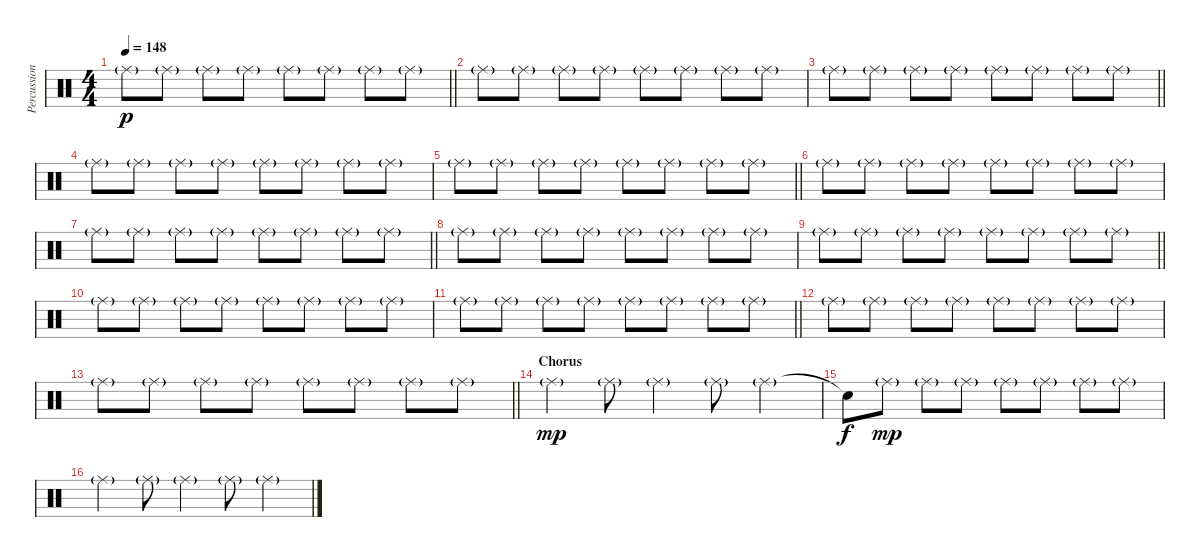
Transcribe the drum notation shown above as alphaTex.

\track ("Percussions" "Percussion") {instrument percussion}
\staff {score}
\articulation defaults
\ts (4 4)
\tempo 148
\clef neutral
\barLineRight lightlight
\ks c "Ride (middle)"{g}.8{dy p} "Ride (middle)"{g}.8 "Ride (middle)"{g}.8 "Ride (middle)"{g}.8 "Ride (middle)"{g}.8 "Ride (middle)"{g}.8 "Ride (middle)"{g}.8 "Ride (middle)"{g}.8
|
"Ride (middle)"{g}.8 "Ride (middle)"{g}.8 "Ride (middle)"{g}.8 "Ride (middle)"{g}.8 "Ride (middle)"{g}.8 "Ride (middle)"{g}.8 "Ride (middle)"{g}.8 "Ride (middle)"{g}.8 |
\barLineRight lightlight "Ride (middle)"{g}.8 "Ride (middle)"{g}.8 "Ride (middle)"{g}.8 "Ride (middle)"{g}.8 "Ride (middle)"{g}.8 "Ride (middle)"{g}.8 "Ride (middle)"{g}.8 "Ride (middle)"{g}.8
|
"Ride (middle)"{g}.8 "Ride (middle)"{g}.8 "Ride (middle)"{g}.8 "Ride (middle)"{g}.8 "Ride (middle)"{g}.8 "Ride (middle)"{g}.8 "Ride (middle)"{g}.8 "Ride (middle)"{g}.8 |
\barLineRight lightlight "Ride (middle)"{g}.8 "Ride (middle)"{g}.8 "Ride (middle)"{g}.8 "Ride (middle)"{g}.8 "Ride (middle)"{g}.8 "Ride (middle)"{g}.8 "Ride (middle)"{g}.8 "Ride (middle)"{g}.8
|
"Ride (middle)"{g}.8 "Ride (middle)"{g}.8 "Ride (middle)"{g}.8 "Ride (middle)"{g}.8 "Ride (middle)"{g}.8 "Ride (middle)"{g}.8 "Ride (middle)"{g}.8 "Ride (middle)"{g}.8 |
\barLineRight lightlight "Ride (middle)"{g}.8 "Ride (middle)"{g}.8 "Ride (middle)"{g}.8 "Ride (middle)"{g}.8 "Ride (middle)"{g}.8 "Ride (middle)"{g}.8 "Ride (middle)"{g}.8 "Ride (middle)"{g}.8
|
"Ride (middle)"{g}.8 "Ride (middle)"{g}.8 "Ride (middle)"{g}.8 "Ride (middle)"{g}.8 "Ride (middle)"{g}.8 "Ride (middle)"{g}.8 "Ride (middle)"{g}.8 "Ride (middle)"{g}.8 |
\barLineRight lightlight "Ride (middle)"{g}.8 "Ride (middle)"{g}.8 "Ride (middle)"{g}.8 "Ride (middle)"{g}.8 "Ride (middle)"{g}.8 "Ride (middle)"{g}.8 "Ride (middle)"{g}.8 "Ride (middle)"{g}.8
|
"Ride (middle)"{g}.8 "Ride (middle)"{g}.8 "Ride (middle)"{g}.8 "Ride (middle)"{g}.8 "Ride (middle)"{g}.8 "Ride (middle)"{g}.8 "Ride (middle)"{g}.8 "Ride (middle)"{g}.8 |
\barLineRight lightlight "Ride (middle)"{g}.8 "Ride (middle)"{g}.8 "Ride (middle)"{g}.8 "Ride (middle)"{g}.8 "Ride (middle)"{g}.8 "Ride (middle)"{g}.8 "Ride (middle)"{g}.8 "Ride (middle)"{g}.8
|
"Ride (middle)"{g}.8 "Ride (middle)"{g}.8 "Ride (middle)"{g}.8 "Ride (middle)"{g}.8 "Ride (middle)"{g}.8 "Ride (middle)"{g}.8 "Ride (middle)"{g}.8 "Ride (middle)"{g}.8 |
\barLineRight lightlight "Ride (middle)"{g}.8 "Ride (middle)"{g}.8 "Ride (middle)"{g}.8 "Ride (middle)"{g}.8 "Ride (middle)"{g}.8 "Ride (middle)"{g}.8 "Ride (middle)"{g}.8 "Ride (middle)"{g}.8
|
\section ("" "Chorus")
"Ride (middle)"{g}.4{dy mp} "Ride (middle)"{g}.8 "Ride (middle)"{g}.4 "Ride (middle)"{g}.8 "Ride (middle)"{g}.4 |
"Snare (hit)"{t}.8{dy f} "Ride (middle)"{g}.8{dy mp} "Ride (middle)"{g}.8 "Ride (middle)"{g}.8 "Ride (middle)"{g}.8 "Ride (middle)"{g}.8 "Ride (middle)"{g}.8 "Ride (middle)"{g}.8 |
"Ride (middle)"{g}.4 "Ride (middle)"{g}.8 "Ride (middle)"{g}.4 "Ride (middle)"{g}.8 "Ride (middle)"{g}.4
